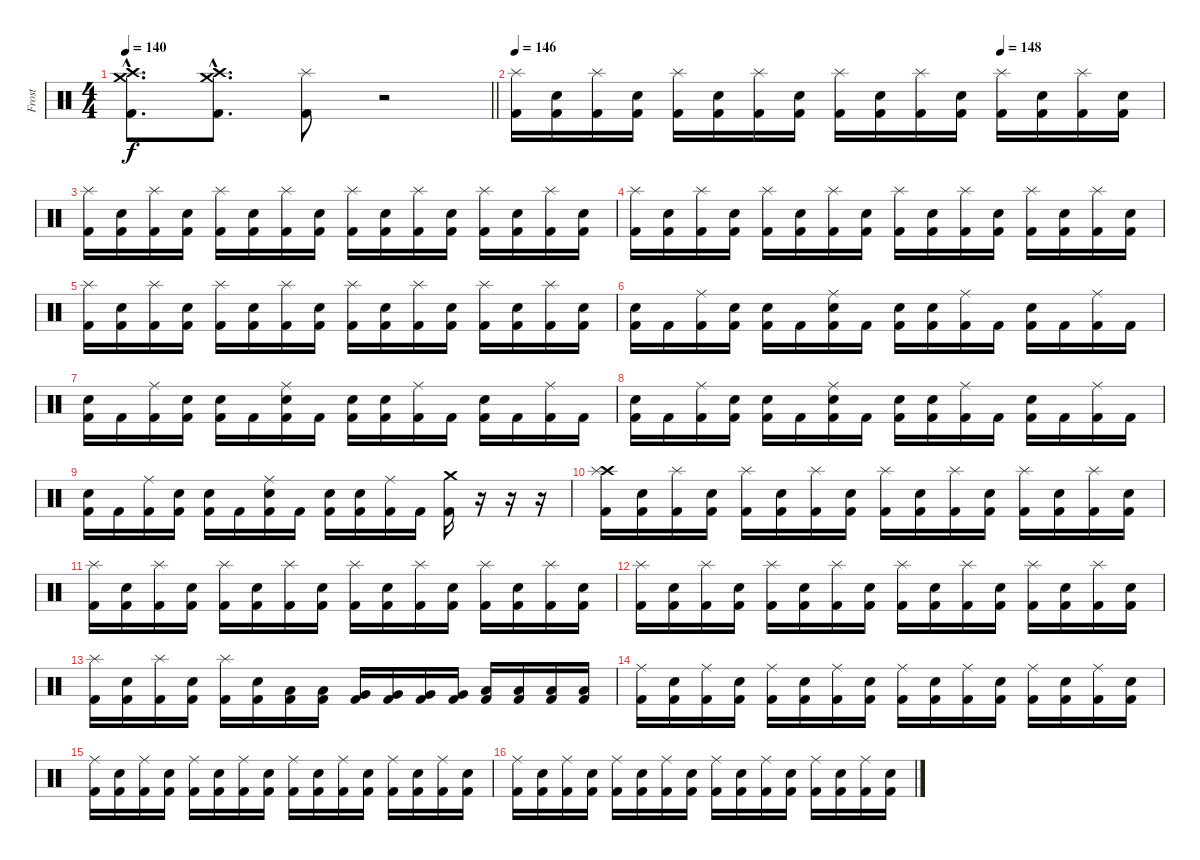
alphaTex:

\track ("Frost" "Frost") {instrument percussion}
\staff {score}
\articulation defaults
\ts (4 4)
\tempo 140
\clef neutral
\barLineRight lightlight
\ks c
("Kick (hit) 2"{hac} "Crash medium (hit)"{hac} "Crash high (hit)"{hac}).8{d dy f} ("Kick (hit) 2"{hac} "Crash medium (hit)"{hac} "Crash high (hit)"{hac}).8{d} ("Kick (hit) 2" "Splash (hit)").8 r.2 |
\tempo 146
\tempo (148 0.75)
("Kick (hit) 2" "Splash (hit)").16 ("Kick (hit) 2" "Snare (hit) 2").16 ("Kick (hit) 2" "Splash (hit)").16 ("Kick (hit) 2" "Snare (hit) 2").16 ("Kick (hit) 2" "Splash (hit)").16 ("Kick (hit) 2" "Snare (hit) 2").16 ("Kick (hit) 2" "Splash (hit)").16 ("Kick (hit) 2" "Snare (hit) 2").16 ("Kick (hit) 2" "Splash (hit)").16 ("Kick (hit) 2" "Snare (hit) 2").16 ("Kick (hit) 2" "Splash (hit)").16 ("Kick (hit) 2" "Snare (hit) 2").16 ("Kick (hit) 2" "Splash (hit)").16 ("Kick (hit) 2" "Snare (hit) 2").16 ("Kick (hit) 2" "Splash (hit)").16 ("Kick (hit) 2" "Snare (hit) 2").16 |
("Kick (hit) 2" "Splash (hit)").16 ("Kick (hit) 2" "Snare (hit) 2").16 ("Kick (hit) 2" "Splash (hit)").16 ("Kick (hit) 2" "Snare (hit) 2").16 ("Kick (hit) 2" "Splash (hit)").16 ("Kick (hit) 2" "Snare (hit) 2").16 ("Kick (hit) 2" "Splash (hit)").16 ("Kick (hit) 2" "Snare (hit) 2").16 ("Kick (hit) 2" "Splash (hit)").16 ("Kick (hit) 2" "Snare (hit) 2").16 ("Kick (hit) 2" "Splash (hit)").16 ("Kick (hit) 2" "Snare (hit) 2").16 ("Kick (hit) 2" "Splash (hit)").16 ("Kick (hit) 2" "Snare (hit) 2").16 ("Kick (hit) 2" "Splash (hit)").16 ("Kick (hit) 2" "Snare (hit) 2").16 |
("Kick (hit) 2" "Splash (hit)").16 ("Kick (hit) 2" "Snare (hit) 2").16 ("Kick (hit) 2" "Splash (hit)").16 ("Kick (hit) 2" "Snare (hit) 2").16 ("Kick (hit) 2" "Splash (hit)").16 ("Kick (hit) 2" "Snare (hit) 2").16 ("Kick (hit) 2" "Splash (hit)").16 ("Kick (hit) 2" "Snare (hit) 2").16 ("Kick (hit) 2" "Splash (hit)").16 ("Kick (hit) 2" "Snare (hit) 2").16 ("Kick (hit) 2" "Splash (hit)").16 ("Kick (hit) 2" "Snare (hit) 2").16 ("Kick (hit) 2" "Splash (hit)").16 ("Kick (hit) 2" "Snare (hit) 2").16 ("Kick (hit) 2" "Splash (hit)").16 ("Kick (hit) 2" "Snare (hit) 2").16 |
("Kick (hit) 2" "Splash (hit)").16 ("Kick (hit) 2" "Snare (hit) 2").16 ("Kick (hit) 2" "Splash (hit)").16 ("Kick (hit) 2" "Snare (hit) 2").16 ("Kick (hit) 2" "Splash (hit)").16 ("Kick (hit) 2" "Snare (hit) 2").16 ("Kick (hit) 2" "Splash (hit)").16 ("Kick (hit) 2" "Snare (hit) 2").16 ("Kick (hit) 2" "Splash (hit)").16 ("Kick (hit) 2" "Snare (hit) 2").16 ("Kick (hit) 2" "Splash (hit)").16 ("Kick (hit) 2" "Snare (hit) 2").16 ("Kick (hit) 2" "Splash (hit)").16 ("Kick (hit) 2" "Snare (hit) 2").16 ("Kick (hit) 2" "Splash (hit)").16 ("Kick (hit) 2" "Snare (hit) 2").16 |
("Kick (hit) 2" "Snare (hit) 2").16 "Kick (hit) 2".16 ("Kick (hit) 2" "Ride (middle)").16 ("Kick (hit) 2" "Snare (hit) 2").16 ("Kick (hit) 2" "Snare (hit) 2").16 "Kick (hit) 2".16 ("Kick (hit) 2" "Snare (hit) 2" "Ride (middle)").16 "Kick (hit) 2".16 ("Kick (hit) 2" "Snare (hit) 2").16 ("Kick (hit) 2" "Snare (hit) 2").16 ("Kick (hit) 2" "Ride (middle)").16 "Kick (hit) 2".16 ("Kick (hit) 2" "Snare (hit) 2").16 "Kick (hit) 2".16 ("Kick (hit) 2" "Ride (middle)").16 "Kick (hit) 2".16 |
("Kick (hit) 2" "Snare (hit) 2").16 "Kick (hit) 2".16 ("Kick (hit) 2" "Ride (middle)").16 ("Kick (hit) 2" "Snare (hit) 2").16 ("Kick (hit) 2" "Snare (hit) 2").16 "Kick (hit) 2".16 ("Kick (hit) 2" "Snare (hit) 2" "Ride (middle)").16 "Kick (hit) 2".16 ("Kick (hit) 2" "Snare (hit) 2").16 ("Kick (hit) 2" "Snare (hit) 2").16 ("Kick (hit) 2" "Ride (middle)").16 "Kick (hit) 2".16 ("Kick (hit) 2" "Snare (hit) 2").16 "Kick (hit) 2".16 ("Kick (hit) 2" "Ride (middle)").16 "Kick (hit) 2".16 |
("Kick (hit) 2" "Snare (hit) 2").16 "Kick (hit) 2".16 ("Kick (hit) 2" "Ride (middle)").16 ("Kick (hit) 2" "Snare (hit) 2").16 ("Kick (hit) 2" "Snare (hit) 2").16 "Kick (hit) 2".16 ("Kick (hit) 2" "Snare (hit) 2" "Ride (middle)").16 "Kick (hit) 2".16 ("Kick (hit) 2" "Snare (hit) 2").16 ("Kick (hit) 2" "Snare (hit) 2").16 ("Kick (hit) 2" "Ride (middle)").16 "Kick (hit) 2".16 ("Kick (hit) 2" "Snare (hit) 2").16 "Kick (hit) 2".16 ("Kick (hit) 2" "Ride (middle)").16 "Kick (hit) 2".16 |
("Kick (hit) 2" "Snare (hit) 2").16 "Kick (hit) 2".16 ("Kick (hit) 2" "Ride (middle)").16 ("Kick (hit) 2" "Snare (hit) 2").16 ("Kick (hit) 2" "Snare (hit) 2").16 "Kick (hit) 2".16 ("Kick (hit) 2" "Snare (hit) 2" "Ride (middle)").16 "Kick (hit) 2".16 ("Kick (hit) 2" "Snare (hit) 2").16 ("Kick (hit) 2" "Snare (hit) 2").16 ("Kick (hit) 2" "Ride (middle)").16 "Kick (hit) 2".16 ("Kick (hit) 2" "Crash medium (hit)").16 r.16 r.16 r.16 |
("Kick (hit) 2" "Crash high (hit)" "Splash (hit)").16 ("Kick (hit) 2" "Snare (hit) 2").16 ("Kick (hit) 2" "Splash (hit)").16 ("Kick (hit) 2" "Snare (hit) 2").16 ("Kick (hit) 2" "Splash (hit)").16 ("Kick (hit) 2" "Snare (hit) 2").16 ("Kick (hit) 2" "Splash (hit)").16 ("Kick (hit) 2" "Snare (hit) 2").16 ("Kick (hit) 2" "Splash (hit)").16 ("Kick (hit) 2" "Snare (hit) 2").16 ("Kick (hit) 2" "Splash (hit)").16 ("Kick (hit) 2" "Snare (hit) 2").16 ("Kick (hit) 2" "Splash (hit)").16 ("Kick (hit) 2" "Snare (hit) 2").16 ("Kick (hit) 2" "Splash (hit)").16 ("Kick (hit) 2" "Snare (hit) 2").16 |
("Kick (hit) 2" "Splash (hit)").16 ("Kick (hit) 2" "Snare (hit) 2").16 ("Kick (hit) 2" "Splash (hit)").16 ("Kick (hit) 2" "Snare (hit) 2").16 ("Kick (hit) 2" "Splash (hit)").16 ("Kick (hit) 2" "Snare (hit) 2").16 ("Kick (hit) 2" "Splash (hit)").16 ("Kick (hit) 2" "Snare (hit) 2").16 ("Kick (hit) 2" "Splash (hit)").16 ("Kick (hit) 2" "Snare (hit) 2").16 ("Kick (hit) 2" "Splash (hit)").16 ("Kick (hit) 2" "Snare (hit) 2").16 ("Kick (hit) 2" "Splash (hit)").16 ("Kick (hit) 2" "Snare (hit) 2").16 ("Kick (hit) 2" "Splash (hit)").16 ("Kick (hit) 2" "Snare (hit) 2").16 |
("Kick (hit) 2" "Splash (hit)").16 ("Kick (hit) 2" "Snare (hit) 2").16 ("Kick (hit) 2" "Splash (hit)").16 ("Kick (hit) 2" "Snare (hit) 2").16 ("Kick (hit) 2" "Splash (hit)").16 ("Kick (hit) 2" "Snare (hit) 2").16 ("Kick (hit) 2" "Splash (hit)").16 ("Kick (hit) 2" "Snare (hit) 2").16 ("Kick (hit) 2" "Splash (hit)").16 ("Kick (hit) 2" "Snare (hit) 2").16 ("Kick (hit) 2" "Splash (hit)").16 ("Kick (hit) 2" "Snare (hit) 2").16 ("Kick (hit) 2" "Splash (hit)").16 ("Kick (hit) 2" "Snare (hit) 2").16 ("Kick (hit) 2" "Splash (hit)").16 ("Kick (hit) 2" "Snare (hit) 2").16 |
("Kick (hit) 2" "Splash (hit)").16 ("Kick (hit) 2" "Snare (hit) 2").16 ("Kick (hit) 2" "Splash (hit)").16 ("Kick (hit) 2" "Snare (hit) 2").16 ("Kick (hit) 2" "Splash (hit)").16 ("Kick (hit) 2" "Snare (hit) 2").16 ("Kick (hit) 2" "Low Tom (hit)").16 ("Kick (hit) 2" "Low Tom (hit)").16 ("Kick (hit) 2" "Very Low Tom (hit)").16 ("Kick (hit) 2" "Very Low Tom (hit)").16 ("Kick (hit) 2" "Very Low Tom (hit)").16 ("Kick (hit) 2" "Very Low Tom (hit)").16 ("Kick (hit) 2" "Low Floor Tom (hit)").16 ("Kick (hit) 2" "Low Floor Tom (hit)").16 ("Kick (hit) 2" "Low Floor Tom (hit)").16 ("Kick (hit) 2" "Low Floor Tom (hit)").16 |
("Kick (hit) 2" "Ride (middle)").16 ("Kick (hit) 2" "Snare (hit) 2").16 ("Kick (hit) 2" "Ride (middle)").16 ("Kick (hit) 2" "Snare (hit) 2").16 ("Kick (hit) 2" "Ride (middle)").16 ("Kick (hit) 2" "Snare (hit) 2").16 ("Kick (hit) 2" "Ride (middle)").16 ("Kick (hit) 2" "Snare (hit) 2").16 ("Kick (hit) 2" "Ride (middle)").16 ("Kick (hit) 2" "Snare (hit) 2").16 ("Kick (hit) 2" "Ride (middle)").16 ("Kick (hit) 2" "Snare (hit) 2").16 ("Kick (hit) 2" "Ride (middle)").16 ("Kick (hit) 2" "Snare (hit) 2").16 ("Kick (hit) 2" "Ride (middle)").16 ("Kick (hit) 2" "Snare (hit) 2").16 |
("Kick (hit) 2" "Ride (middle)").16 ("Kick (hit) 2" "Snare (hit) 2").16 ("Kick (hit) 2" "Ride (middle)").16 ("Kick (hit) 2" "Snare (hit) 2").16 ("Kick (hit) 2" "Ride (middle)").16 ("Kick (hit) 2" "Snare (hit) 2").16 ("Kick (hit) 2" "Ride (middle)").16 ("Kick (hit) 2" "Snare (hit) 2").16 ("Kick (hit) 2" "Ride (middle)").16 ("Kick (hit) 2" "Snare (hit) 2").16 ("Kick (hit) 2" "Ride (middle)").16 ("Kick (hit) 2" "Snare (hit) 2").16 ("Kick (hit) 2" "Ride (middle)").16 ("Kick (hit) 2" "Snare (hit) 2").16 ("Kick (hit) 2" "Ride (middle)").16 ("Kick (hit) 2" "Snare (hit) 2").16 |
("Kick (hit) 2" "Ride (middle)").16 ("Kick (hit) 2" "Snare (hit) 2").16 ("Kick (hit) 2" "Ride (middle)").16 ("Kick (hit) 2" "Snare (hit) 2").16 ("Kick (hit) 2" "Ride (middle)").16 ("Kick (hit) 2" "Snare (hit) 2").16 ("Kick (hit) 2" "Ride (middle)").16 ("Kick (hit) 2" "Snare (hit) 2").16 ("Kick (hit) 2" "Ride (middle)").16 ("Kick (hit) 2" "Snare (hit) 2").16 ("Kick (hit) 2" "Ride (middle)").16 ("Kick (hit) 2" "Snare (hit) 2").16 ("Kick (hit) 2" "Ride (middle)").16 ("Kick (hit) 2" "Snare (hit) 2").16 ("Kick (hit) 2" "Ride (middle)").16 ("Kick (hit) 2" "Snare (hit) 2").16
